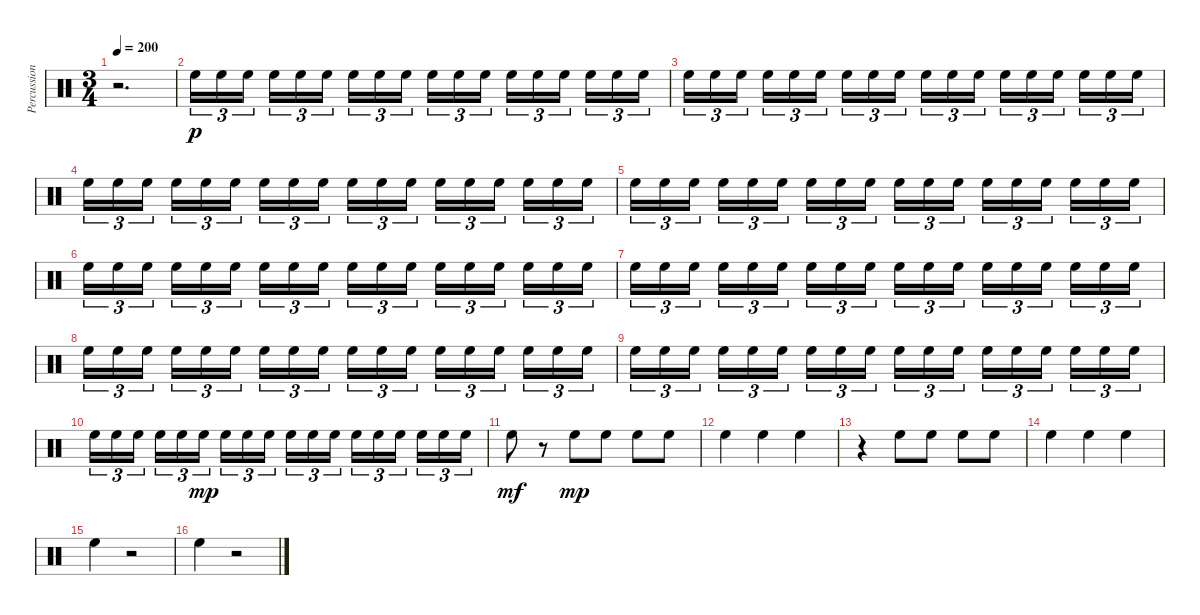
\track ("Percussion." "Percussion") {instrument percussion}
\staff {score}
\articulation defaults
\ts (3 4)
\tempo 200
\clef neutral
\ks c
r.2{d dy f} |
"High Floor Tom (hit)".16{tu (3 2) dy p} "High Floor Tom (hit)".16{tu (3 2)} "High Floor Tom (hit)".16{tu (3 2) beam splitsecondary} "High Floor Tom (hit)".16{tu (3 2)} "High Floor Tom (hit)".16{tu (3 2)} "High Floor Tom (hit)".16{tu (3 2)} "High Floor Tom (hit)".16{tu (3 2)} "High Floor Tom (hit)".16{tu (3 2)} "High Floor Tom (hit)".16{tu (3 2) beam splitsecondary} "High Floor Tom (hit)".16{tu (3 2)} "High Floor Tom (hit)".16{tu (3 2)} "High Floor Tom (hit)".16{tu (3 2)} "High Floor Tom (hit)".16{tu (3 2)} "High Floor Tom (hit)".16{tu (3 2)} "High Floor Tom (hit)".16{tu (3 2) beam splitsecondary} "High Floor Tom (hit)".16{tu (3 2)} "High Floor Tom (hit)".16{tu (3 2)} "High Floor Tom (hit)".16{tu (3 2)} |
"High Floor Tom (hit)".16{tu (3 2)} "High Floor Tom (hit)".16{tu (3 2)} "High Floor Tom (hit)".16{tu (3 2) beam splitsecondary} "High Floor Tom (hit)".16{tu (3 2)} "High Floor Tom (hit)".16{tu (3 2)} "High Floor Tom (hit)".16{tu (3 2)} "High Floor Tom (hit)".16{tu (3 2)} "High Floor Tom (hit)".16{tu (3 2)} "High Floor Tom (hit)".16{tu (3 2) beam splitsecondary} "High Floor Tom (hit)".16{tu (3 2)} "High Floor Tom (hit)".16{tu (3 2)} "High Floor Tom (hit)".16{tu (3 2)} "High Floor Tom (hit)".16{tu (3 2)} "High Floor Tom (hit)".16{tu (3 2)} "High Floor Tom (hit)".16{tu (3 2) beam splitsecondary} "High Floor Tom (hit)".16{tu (3 2)} "High Floor Tom (hit)".16{tu (3 2)} "High Floor Tom (hit)".16{tu (3 2)} |
"High Floor Tom (hit)".16{tu (3 2)} "High Floor Tom (hit)".16{tu (3 2)} "High Floor Tom (hit)".16{tu (3 2) beam splitsecondary} "High Floor Tom (hit)".16{tu (3 2)} "High Floor Tom (hit)".16{tu (3 2)} "High Floor Tom (hit)".16{tu (3 2)} "High Floor Tom (hit)".16{tu (3 2)} "High Floor Tom (hit)".16{tu (3 2)} "High Floor Tom (hit)".16{tu (3 2) beam splitsecondary} "High Floor Tom (hit)".16{tu (3 2)} "High Floor Tom (hit)".16{tu (3 2)} "High Floor Tom (hit)".16{tu (3 2)} "High Floor Tom (hit)".16{tu (3 2)} "High Floor Tom (hit)".16{tu (3 2)} "High Floor Tom (hit)".16{tu (3 2) beam splitsecondary} "High Floor Tom (hit)".16{tu (3 2)} "High Floor Tom (hit)".16{tu (3 2)} "High Floor Tom (hit)".16{tu (3 2)} |
"High Floor Tom (hit)".16{tu (3 2)} "High Floor Tom (hit)".16{tu (3 2)} "High Floor Tom (hit)".16{tu (3 2) beam splitsecondary} "High Floor Tom (hit)".16{tu (3 2)} "High Floor Tom (hit)".16{tu (3 2)} "High Floor Tom (hit)".16{tu (3 2)} "High Floor Tom (hit)".16{tu (3 2)} "High Floor Tom (hit)".16{tu (3 2)} "High Floor Tom (hit)".16{tu (3 2) beam splitsecondary} "High Floor Tom (hit)".16{tu (3 2)} "High Floor Tom (hit)".16{tu (3 2)} "High Floor Tom (hit)".16{tu (3 2)} "High Floor Tom (hit)".16{tu (3 2)} "High Floor Tom (hit)".16{tu (3 2)} "High Floor Tom (hit)".16{tu (3 2) beam splitsecondary} "High Floor Tom (hit)".16{tu (3 2)} "High Floor Tom (hit)".16{tu (3 2)} "High Floor Tom (hit)".16{tu (3 2)} |
"High Floor Tom (hit)".16{tu (3 2)} "High Floor Tom (hit)".16{tu (3 2)} "High Floor Tom (hit)".16{tu (3 2) beam splitsecondary} "High Floor Tom (hit)".16{tu (3 2)} "High Floor Tom (hit)".16{tu (3 2)} "High Floor Tom (hit)".16{tu (3 2)} "High Floor Tom (hit)".16{tu (3 2)} "High Floor Tom (hit)".16{tu (3 2)} "High Floor Tom (hit)".16{tu (3 2) beam splitsecondary} "High Floor Tom (hit)".16{tu (3 2)} "High Floor Tom (hit)".16{tu (3 2)} "High Floor Tom (hit)".16{tu (3 2)} "High Floor Tom (hit)".16{tu (3 2)} "High Floor Tom (hit)".16{tu (3 2)} "High Floor Tom (hit)".16{tu (3 2) beam splitsecondary} "High Floor Tom (hit)".16{tu (3 2)} "High Floor Tom (hit)".16{tu (3 2)} "High Floor Tom (hit)".16{tu (3 2)} |
"High Floor Tom (hit)".16{tu (3 2)} "High Floor Tom (hit)".16{tu (3 2)} "High Floor Tom (hit)".16{tu (3 2) beam splitsecondary} "High Floor Tom (hit)".16{tu (3 2)} "High Floor Tom (hit)".16{tu (3 2)} "High Floor Tom (hit)".16{tu (3 2)} "High Floor Tom (hit)".16{tu (3 2)} "High Floor Tom (hit)".16{tu (3 2)} "High Floor Tom (hit)".16{tu (3 2) beam splitsecondary} "High Floor Tom (hit)".16{tu (3 2)} "High Floor Tom (hit)".16{tu (3 2)} "High Floor Tom (hit)".16{tu (3 2)} "High Floor Tom (hit)".16{tu (3 2)} "High Floor Tom (hit)".16{tu (3 2)} "High Floor Tom (hit)".16{tu (3 2) beam splitsecondary} "High Floor Tom (hit)".16{tu (3 2)} "High Floor Tom (hit)".16{tu (3 2)} "High Floor Tom (hit)".16{tu (3 2)} |
"High Floor Tom (hit)".16{tu (3 2)} "High Floor Tom (hit)".16{tu (3 2)} "High Floor Tom (hit)".16{tu (3 2) beam splitsecondary} "High Floor Tom (hit)".16{tu (3 2)} "High Floor Tom (hit)".16{tu (3 2)} "High Floor Tom (hit)".16{tu (3 2)} "High Floor Tom (hit)".16{tu (3 2)} "High Floor Tom (hit)".16{tu (3 2)} "High Floor Tom (hit)".16{tu (3 2) beam splitsecondary} "High Floor Tom (hit)".16{tu (3 2)} "High Floor Tom (hit)".16{tu (3 2)} "High Floor Tom (hit)".16{tu (3 2)} "High Floor Tom (hit)".16{tu (3 2)} "High Floor Tom (hit)".16{tu (3 2)} "High Floor Tom (hit)".16{tu (3 2) beam splitsecondary} "High Floor Tom (hit)".16{tu (3 2)} "High Floor Tom (hit)".16{tu (3 2)} "High Floor Tom (hit)".16{tu (3 2)} |
"High Floor Tom (hit)".16{tu (3 2)} "High Floor Tom (hit)".16{tu (3 2)} "High Floor Tom (hit)".16{tu (3 2) beam splitsecondary} "High Floor Tom (hit)".16{tu (3 2)} "High Floor Tom (hit)".16{tu (3 2)} "High Floor Tom (hit)".16{tu (3 2)} "High Floor Tom (hit)".16{tu (3 2)} "High Floor Tom (hit)".16{tu (3 2)} "High Floor Tom (hit)".16{tu (3 2) beam splitsecondary} "High Floor Tom (hit)".16{tu (3 2)} "High Floor Tom (hit)".16{tu (3 2)} "High Floor Tom (hit)".16{tu (3 2)} "High Floor Tom (hit)".16{tu (3 2)} "High Floor Tom (hit)".16{tu (3 2)} "High Floor Tom (hit)".16{tu (3 2) beam splitsecondary} "High Floor Tom (hit)".16{tu (3 2)} "High Floor Tom (hit)".16{tu (3 2)} "High Floor Tom (hit)".16{tu (3 2)} |
"High Floor Tom (hit)".16{tu (3 2)} "High Floor Tom (hit)".16{tu (3 2)} "High Floor Tom (hit)".16{tu (3 2) beam splitsecondary} "High Floor Tom (hit)".16{tu (3 2)} "High Floor Tom (hit)".16{tu (3 2)} "High Floor Tom (hit)".16{tu (3 2) dy mp} "High Floor Tom (hit)".16{tu (3 2)} "High Floor Tom (hit)".16{tu (3 2)} "High Floor Tom (hit)".16{tu (3 2) beam splitsecondary} "High Floor Tom (hit)".16{tu (3 2)} "High Floor Tom (hit)".16{tu (3 2)} "High Floor Tom (hit)".16{tu (3 2)} "High Floor Tom (hit)".16{tu (3 2)} "High Floor Tom (hit)".16{tu (3 2)} "High Floor Tom (hit)".16{tu (3 2) beam splitsecondary} "High Floor Tom (hit)".16{tu (3 2)} "High Floor Tom (hit)".16{tu (3 2)} "High Floor Tom (hit)".16{tu (3 2)} |
"High Floor Tom (hit)".8{dy mf} r.8 "High Floor Tom (hit)".8{dy mp} "High Floor Tom (hit)".8 "High Floor Tom (hit)".8 "High Floor Tom (hit)".8 |
"High Floor Tom (hit)".4 "High Floor Tom (hit)".4 "High Floor Tom (hit)".4 |
r.4 "High Floor Tom (hit)".8 "High Floor Tom (hit)".8 "High Floor Tom (hit)".8 "High Floor Tom (hit)".8 |
"High Floor Tom (hit)".4 "High Floor Tom (hit)".4 "High Floor Tom (hit)".4 |
"High Floor Tom (hit)".4 r.2 |
"High Floor Tom (hit)".4 r.2
